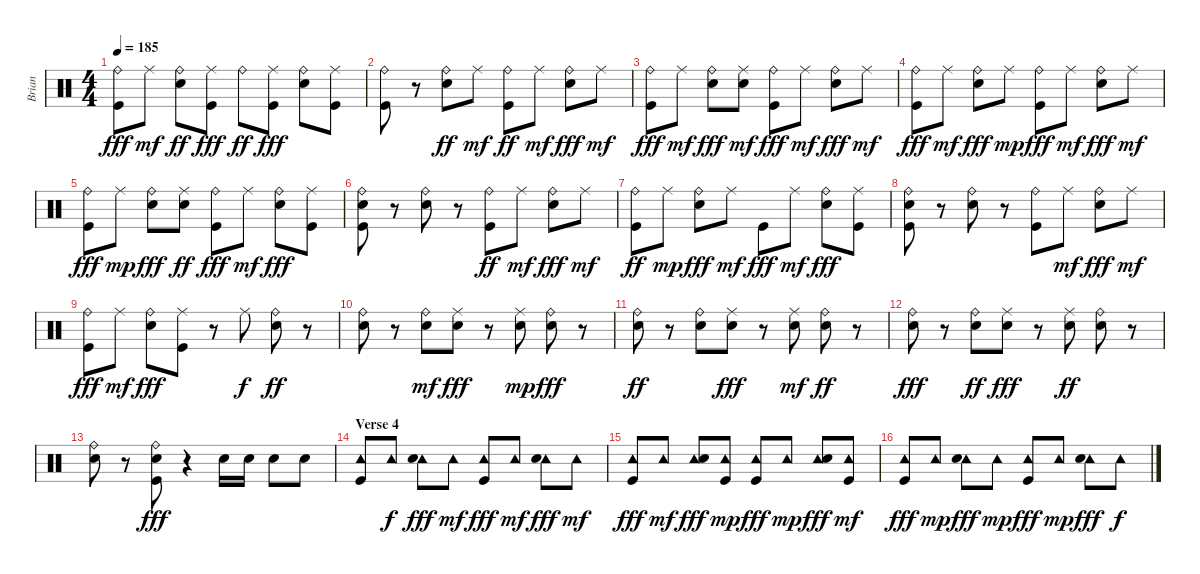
\track ("Brian" "Brian") {instrument percussion}
\staff {score}
\articulation defaults
\ts (4 4)
\tempo 185
\clef neutral
\ks c
("Ride (bell)" "Kick (hit)").8{dy fff} "Ride (middle)".8{dy mf} ("Electric Snare (hit)" "Ride (bell)").8{dy ff} ("Ride (middle)" "Kick (hit)").8{dy fff} "Ride (bell)".8{dy ff} ("Ride (middle)" "Kick (hit)").8{dy fff} ("Ride (bell)" "Electric Snare (hit)").8 ("Ride (middle)" "Kick (hit)").8 |
("Ride (bell)" "Kick (hit)").8 r.8 ("Electric Snare (hit)" "Ride (bell)").8{dy ff} "Ride (middle)".8{dy mf} ("Kick (hit)" "Ride (bell)").8{dy ff} "Ride (middle)".8{dy mf} ("Electric Snare (hit)" "Ride (bell)").8{dy fff} "Ride (middle)".8{dy mf} |
("Ride (bell)" "Kick (hit)").8{dy fff} "Ride (middle)".8{dy mf} ("Electric Snare (hit)" "Ride (bell)").8{dy fff} ("Electric Snare (hit)" "Ride (middle)").8{dy mf} ("Ride (bell)" "Kick (hit)").8{dy fff} "Ride (middle)".8{dy mf} ("Ride (bell)" "Electric Snare (hit)").8{dy fff} "Ride (middle)".8{dy mf} |
("Ride (bell)" "Kick (hit)").8{dy fff} "Ride (middle)".8{dy mf} ("Electric Snare (hit)" "Ride (bell)").8{dy fff} "Ride (middle)".8{dy mp} ("Ride (bell)" "Kick (hit)").8{dy fff} "Ride (middle)".8{dy mf} ("Ride (bell)" "Electric Snare (hit)").8{dy fff} "Ride (middle)".8{dy mf} |
("Ride (bell)" "Kick (hit)").8{dy fff} "Ride (middle)".8{dy mp} ("Ride (bell)" "Electric Snare (hit)").8{dy fff} ("Ride (middle)" "Electric Snare (hit)").8{dy ff} ("Ride (bell)" "Kick (hit)").8{dy fff} "Ride (middle)".8{dy mf} ("Ride (bell)" "Electric Snare (hit)").8{dy fff} ("Ride (middle)" "Kick (hit)").8 |
("Electric Snare (hit)" "Ride (bell)" "Kick (hit)").8 r.8 ("Ride (bell)" "Electric Snare (hit)").8 r.8 ("Kick (hit)" "Ride (bell)").8{dy ff} "Ride (middle)".8{dy mf} ("Electric Snare (hit)" "Ride (bell)").8{dy fff} "Ride (middle)".8{dy mf} |
("Kick (hit)" "Ride (bell)").8{dy ff} "Ride (middle)".8{dy mp} ("Ride (bell)" "Electric Snare (hit)").8{dy fff} "Ride (middle)".8{dy mf} "Kick (hit)".8{dy fff} "Ride (middle)".8{dy mf} ("Ride (bell)" "Electric Snare (hit)").8{dy fff} ("Ride (middle)" "Kick (hit)").8 |
("Ride (bell)" "Electric Snare (hit)" "Kick (hit)").8 r.8 ("Ride (bell)" "Electric Snare (hit)").8 r.8 ("Kick (hit)" "Ride (bell)").8 "Ride (middle)".8{dy mf} ("Electric Snare (hit)" "Ride (bell)").8{dy fff} "Ride (middle)".8{dy mf} |
("Ride (bell)" "Kick (hit)").8{dy fff} "Ride (middle)".8{dy mf} ("Ride (bell)" "Electric Snare (hit)").8{dy fff} ("Ride (middle)" "Kick (hit)").8 r.8 "Ride (middle)".8{dy f} ("Electric Snare (hit)" "Ride (bell)").8{dy ff} r.8 |
("Electric Snare (hit)" "Ride (bell)").8 r.8 ("Ride (bell)" "Electric Snare (hit)").8{dy mf} ("Ride (middle)" "Electric Snare (hit)").8{dy fff} r.8 ("Ride (middle)" "Electric Snare (hit)").8{dy mp} ("Ride (bell)" "Electric Snare (hit)").8{dy fff} r.8 |
("Electric Snare (hit)" "Ride (bell)").8{dy ff} r.8 ("Electric Snare (hit)" "Ride (bell)").8 ("Electric Snare (hit)" "Ride (middle)").8{dy fff} r.8 ("Electric Snare (hit)" "Ride (middle)").8{dy mf} ("Electric Snare (hit)" "Ride (bell)").8{dy ff} r.8 |
("Ride (bell)" "Electric Snare (hit)").8{dy fff} r.8 ("Electric Snare (hit)" "Ride (bell)").8{dy ff} ("Ride (middle)" "Electric Snare (hit)").8{dy fff} r.8 ("Ride (middle)" "Electric Snare (hit)").8{dy ff} ("Ride (bell)" "Electric Snare (hit)").8 r.8 |
("Ride (bell)" "Electric Snare (hit)").8 r.8 ("Ride (bell)" "Electric Snare (hit)" "Kick (hit)").8{dy fff} r.4 "Electric Snare (hit)".16 "Electric Snare (hit)".16 "Electric Snare (hit)".8 "Electric Snare (hit)".8 |
\section ("" "Verse 4")
("Tambourine (hit)" "Kick (hit)").8 "Tambourine (hit)".8{dy f} ("Tambourine (hit)" "Electric Snare (hit)").8{dy fff} "Tambourine (hit)".8{dy mf} ("Tambourine (hit)" "Kick (hit)").8{dy fff} "Tambourine (hit)".8{dy mf} ("Tambourine (hit)" "Electric Snare (hit)").8{dy fff} "Tambourine (hit)".8{dy mf} |
("Tambourine (hit)" "Kick (hit)").8{dy fff} "Tambourine (hit)".8{dy mf} ("Tambourine (hit)" "Electric Snare (hit)").8{dy fff} ("Kick (hit)" "Tambourine (hit)").8{dy mp} ("Tambourine (hit)" "Kick (hit)").8{dy fff} "Tambourine (hit)".8{dy mp} ("Tambourine (hit)" "Electric Snare (hit)").8{dy fff} ("Kick (hit)" "Tambourine (hit)").8{dy mf} |
("Tambourine (hit)" "Kick (hit)").8{dy fff} "Tambourine (hit)".8{dy mp} ("Tambourine (hit)" "Electric Snare (hit)").8{dy fff} "Tambourine (hit)".8{dy mp} ("Tambourine (hit)" "Kick (hit)").8{dy fff} "Tambourine (hit)".8{dy mp} ("Tambourine (hit)" "Electric Snare (hit)").8{dy fff} "Tambourine (hit)".8{dy f}
